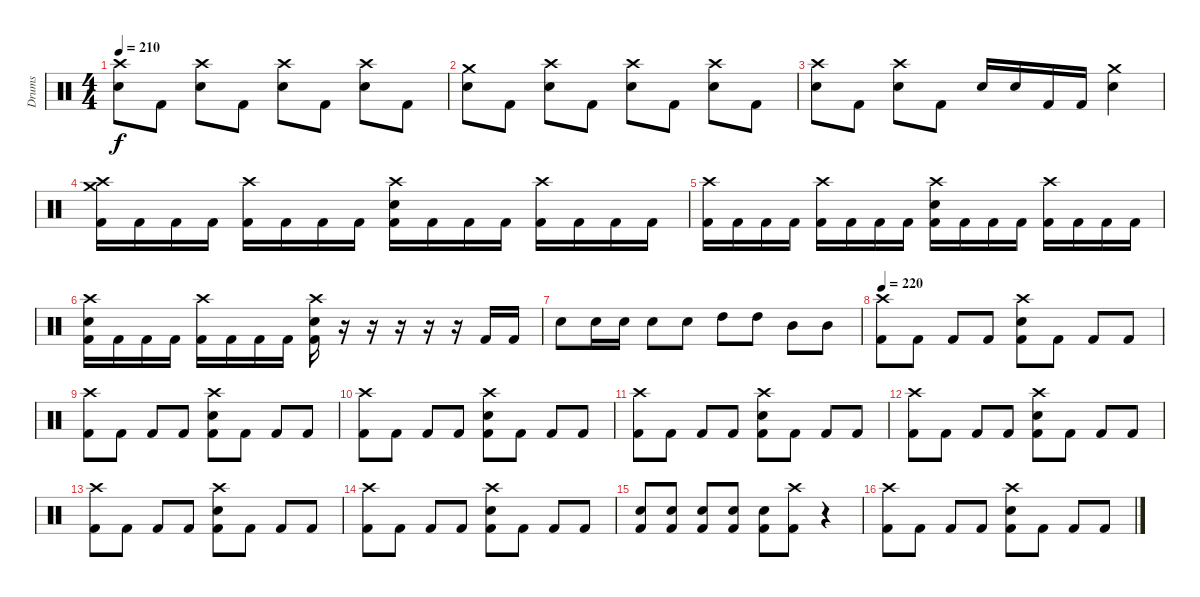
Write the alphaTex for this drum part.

\track ("Drums" "Drums") {instrument percussion}
\staff {score}
\articulation defaults
\ts (4 4)
\tempo 210
\clef neutral
\ks c
("Crash high (hit)" "Snare (hit) 2").8{dy f} "Kick (hit) 2".8 ("Crash high (hit)" "Snare (hit) 2").8 "Kick (hit) 2".8 ("Crash high (hit)" "Snare (hit) 2").8 "Kick (hit) 2".8 ("Crash high (hit)" "Snare (hit) 2").8 "Kick (hit) 2".8 |
("Crash medium (hit)" "Snare (hit) 2").8 "Kick (hit) 2".8 ("Crash high (hit)" "Snare (hit) 2").8 "Kick (hit) 2".8 ("Crash high (hit)" "Snare (hit) 2").8 "Kick (hit) 2".8 ("Crash high (hit)" "Snare (hit) 2").8 "Kick (hit) 2".8 |
("Crash high (hit)" "Snare (hit) 2").8 "Kick (hit) 2".8 ("Crash high (hit)" "Snare (hit) 2").8 "Kick (hit) 2".8 "Snare (hit) 2".16 "Snare (hit) 2".16 "Kick (hit) 2".16 "Kick (hit) 2".16 ("Crash medium (hit)" "Snare (hit) 2").4 |
("Crash medium (hit)" "Crash high (hit)" "Kick (hit) 2").16 "Kick (hit) 2".16 "Kick (hit) 2".16 "Kick (hit) 2".16 ("Crash high (hit)" "Kick (hit) 2").16 "Kick (hit) 2".16 "Kick (hit) 2".16 "Kick (hit) 2".16 ("Crash high (hit)" "Snare (hit) 2" "Kick (hit) 2").16 "Kick (hit) 2".16 "Kick (hit) 2".16 "Kick (hit) 2".16 ("Crash high (hit)" "Kick (hit) 2").16 "Kick (hit) 2".16 "Kick (hit) 2".16 "Kick (hit) 2".16 |
("Crash high (hit)" "Kick (hit) 2").16 "Kick (hit) 2".16 "Kick (hit) 2".16 "Kick (hit) 2".16 ("Crash high (hit)" "Kick (hit) 2").16 "Kick (hit) 2".16 "Kick (hit) 2".16 "Kick (hit) 2".16 ("Crash high (hit)" "Snare (hit) 2" "Kick (hit) 2").16 "Kick (hit) 2".16 "Kick (hit) 2".16 "Kick (hit) 2".16 ("Crash high (hit)" "Kick (hit) 2").16 "Kick (hit) 2".16 "Kick (hit) 2".16 "Kick (hit) 2".16 |
("Crash high (hit)" "Snare (hit) 2" "Kick (hit) 2").16 "Kick (hit) 2".16 "Kick (hit) 2".16 "Kick (hit) 2".16 ("Crash high (hit)" "Kick (hit) 2").16 "Kick (hit) 2".16 "Kick (hit) 2".16 "Kick (hit) 2".16 ("Crash high (hit)" "Snare (hit) 2" "Kick (hit) 2").16 r.16 r.16 r.16 r.16 r.16 "Kick (hit) 2".16 "Kick (hit) 2".16 |
"Snare (hit) 2".8 "Snare (hit) 2".16 "Snare (hit) 2".16 "Snare (hit) 2".8 "Snare (hit) 2".8 "High Tom (hit)".8 "High Tom (hit)".8 "Mid Tom (hit)".8 "Mid Tom (hit)".8 |
\tempo 220
("Crash high (hit)" "Kick (hit) 2").8 "Kick (hit) 2".8 "Kick (hit) 2".8 "Kick (hit) 2".8 ("Crash high (hit)" "Snare (hit) 2" "Kick (hit) 2").8 "Kick (hit) 2".8 "Kick (hit) 2".8 "Kick (hit) 2".8 |
("Crash high (hit)" "Kick (hit) 2").8 "Kick (hit) 2".8 "Kick (hit) 2".8 "Kick (hit) 2".8 ("Crash high (hit)" "Snare (hit) 2" "Kick (hit) 2").8 "Kick (hit) 2".8 "Kick (hit) 2".8 "Kick (hit) 2".8 |
("Crash high (hit)" "Kick (hit) 2").8 "Kick (hit) 2".8 "Kick (hit) 2".8 "Kick (hit) 2".8 ("Crash high (hit)" "Snare (hit) 2" "Kick (hit) 2").8 "Kick (hit) 2".8 "Kick (hit) 2".8 "Kick (hit) 2".8 |
("Crash high (hit)" "Kick (hit) 2").8 "Kick (hit) 2".8 "Kick (hit) 2".8 "Kick (hit) 2".8 ("Crash high (hit)" "Snare (hit) 2" "Kick (hit) 2").8 "Kick (hit) 2".8 "Kick (hit) 2".8 "Kick (hit) 2".8 |
("Crash high (hit)" "Kick (hit) 2").8 "Kick (hit) 2".8 "Kick (hit) 2".8 "Kick (hit) 2".8 ("Crash high (hit)" "Snare (hit) 2" "Kick (hit) 2").8 "Kick (hit) 2".8 "Kick (hit) 2".8 "Kick (hit) 2".8 |
("Crash high (hit)" "Kick (hit) 2").8 "Kick (hit) 2".8 "Kick (hit) 2".8 "Kick (hit) 2".8 ("Crash high (hit)" "Snare (hit) 2" "Kick (hit) 2").8 "Kick (hit) 2".8 "Kick (hit) 2".8 "Kick (hit) 2".8 |
("Crash high (hit)" "Kick (hit) 2").8 "Kick (hit) 2".8 "Kick (hit) 2".8 "Kick (hit) 2".8 ("Crash high (hit)" "Snare (hit) 2" "Kick (hit) 2").8 "Kick (hit) 2".8 "Kick (hit) 2".8 "Kick (hit) 2".8 |
("Snare (hit) 2" "Kick (hit) 2").8 ("Snare (hit) 2" "Kick (hit) 2").8 ("Snare (hit) 2" "Kick (hit) 2").8 ("Snare (hit) 2" "Kick (hit) 2").8 ("Snare (hit) 2" "Kick (hit) 2").8 ("Crash high (hit)" "Kick (hit) 2").8 r.4 |
("Crash high (hit)" "Kick (hit) 2").8 "Kick (hit) 2".8 "Kick (hit) 2".8 "Kick (hit) 2".8 ("Crash high (hit)" "Snare (hit) 2" "Kick (hit) 2").8 "Kick (hit) 2".8 "Kick (hit) 2".8 "Kick (hit) 2".8
